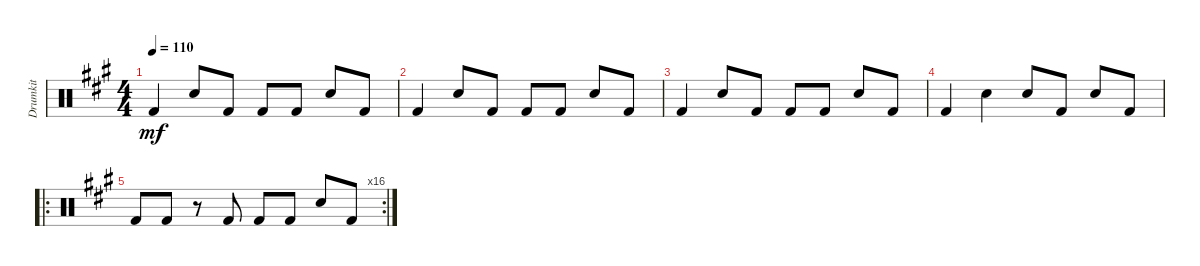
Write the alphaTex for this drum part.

\track ("Drumkit" "Drumkit") {instrument percussion}
\staff {score}
\articulation defaults
\ts (4 4)
\tempo 110
\clef neutral
\ks a "Kick (hit) 2".4{dy mf} "Snare (hit) 2".8 "Kick (hit) 2".8 "Kick (hit) 2".8 "Kick (hit) 2".8 "Snare (hit) 2".8 "Kick (hit) 2".8
|
"Kick (hit) 2".4 "Snare (hit) 2".8 "Kick (hit) 2".8 "Kick (hit) 2".8 "Kick (hit) 2".8 "Snare (hit) 2".8 "Kick (hit) 2".8 |
"Kick (hit) 2".4 "Snare (hit) 2".8 "Kick (hit) 2".8 "Kick (hit) 2".8 "Kick (hit) 2".8 "Snare (hit) 2".8 "Kick (hit) 2".8 |
"Kick (hit) 2".4 "Snare (hit) 2".4 "Snare (hit) 2".8 "Kick (hit) 2".8 "Snare (hit) 2".8 "Kick (hit) 2".8 |
\ro
\rc 16 "Kick (hit) 2".8 "Kick (hit) 2".8
r.8 "Kick (hit) 2".8 "Kick (hit) 2".8 "Kick (hit) 2".8 "Snare (hit) 2".8 "Kick (hit) 2".8
